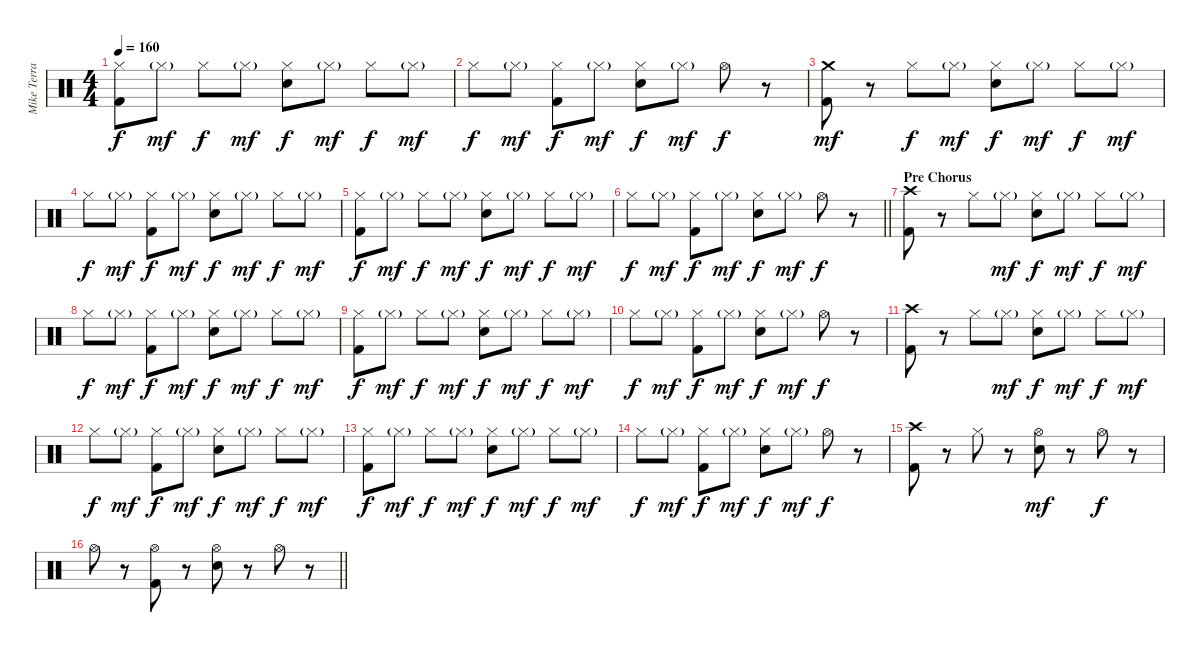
\track ("Mike Terrana" "Mike Terra") {instrument percussion}
\staff {score}
\articulation defaults
\ts (4 4)
\tempo 160
\clef neutral
\ks c
("Hi-Hat (closed)" "Kick (hit) 2").8{dy f} "Hi-Hat (closed)"{g}.8{dy mf} "Hi-Hat (closed)".8{dy f} "Hi-Hat (closed)"{g}.8{dy mf} ("Hi-Hat (closed)" "Snare (hit) 2").8{dy f} "Hi-Hat (closed)"{g}.8{dy mf} "Hi-Hat (closed)".8{dy f} "Hi-Hat (closed)"{g}.8{dy mf} |
"Hi-Hat (closed)".8{dy f} "Hi-Hat (closed)"{g}.8{dy mf} ("Hi-Hat (closed)" "Kick (hit) 2").8{dy f} "Hi-Hat (closed)"{g}.8{dy mf} ("Hi-Hat (closed)" "Snare (hit) 2").8{dy f} "Hi-Hat (closed)"{g}.8{dy mf} "Hi-Hat (open)".8{dy f} r.8 |
("Crash medium (hit)" "Kick (hit) 2").8{dy mf} r.8 "Hi-Hat (closed)".8{dy f} "Hi-Hat (closed)"{g}.8{dy mf} ("Hi-Hat (closed)" "Snare (hit) 2").8{dy f} "Hi-Hat (closed)"{g}.8{dy mf} "Hi-Hat (closed)".8{dy f} "Hi-Hat (closed)"{g}.8{dy mf} |
"Hi-Hat (closed)".8{dy f} "Hi-Hat (closed)"{g}.8{dy mf} ("Hi-Hat (closed)" "Kick (hit) 2").8{dy f} "Hi-Hat (closed)"{g}.8{dy mf} ("Hi-Hat (closed)" "Snare (hit) 2").8{dy f} "Hi-Hat (closed)"{g}.8{dy mf} "Hi-Hat (closed)".8{dy f} "Hi-Hat (closed)"{g}.8{dy mf} |
("Hi-Hat (closed)" "Kick (hit) 2").8{dy f} "Hi-Hat (closed)"{g}.8{dy mf} "Hi-Hat (closed)".8{dy f} "Hi-Hat (closed)"{g}.8{dy mf} ("Hi-Hat (closed)" "Snare (hit) 2").8{dy f} "Hi-Hat (closed)"{g}.8{dy mf} "Hi-Hat (closed)".8{dy f} "Hi-Hat (closed)"{g}.8{dy mf} |
\barLineRight lightlight "Hi-Hat (closed)".8{dy f} "Hi-Hat (closed)"{g}.8{dy mf}
("Hi-Hat (closed)" "Kick (hit) 2").8{dy f} "Hi-Hat (closed)"{g}.8{dy mf} ("Hi-Hat (closed)" "Snare (hit) 2").8{dy f} "Hi-Hat (closed)"{g}.8{dy mf} "Hi-Hat (open)".8{dy f} r.8 |
\section ("" "Pre Chorus")
("Crash high (hit)" "Kick (hit) 2").8 r.8 "Hi-Hat (closed)".8 "Hi-Hat (closed)"{g}.8{dy mf} ("Hi-Hat (closed)" "Snare (hit) 2").8{dy f} "Hi-Hat (closed)"{g}.8{dy mf} "Hi-Hat (closed)".8{dy f} "Hi-Hat (closed)"{g}.8{dy mf} |
"Hi-Hat (closed)".8{dy f} "Hi-Hat (closed)"{g}.8{dy mf} ("Hi-Hat (closed)" "Kick (hit) 2").8{dy f} "Hi-Hat (closed)"{g}.8{dy mf} ("Hi-Hat (closed)" "Snare (hit) 2").8{dy f} "Hi-Hat (closed)"{g}.8{dy mf} "Hi-Hat (closed)".8{dy f} "Hi-Hat (closed)"{g}.8{dy mf} |
("Hi-Hat (closed)" "Kick (hit) 2").8{dy f} "Hi-Hat (closed)"{g}.8{dy mf} "Hi-Hat (closed)".8{dy f} "Hi-Hat (closed)"{g}.8{dy mf} ("Hi-Hat (closed)" "Snare (hit) 2").8{dy f} "Hi-Hat (closed)"{g}.8{dy mf} "Hi-Hat (closed)".8{dy f} "Hi-Hat (closed)"{g}.8{dy mf} |
"Hi-Hat (closed)".8{dy f} "Hi-Hat (closed)"{g}.8{dy mf} ("Hi-Hat (closed)" "Kick (hit) 2").8{dy f} "Hi-Hat (closed)"{g}.8{dy mf} ("Hi-Hat (closed)" "Snare (hit) 2").8{dy f} "Hi-Hat (closed)"{g}.8{dy mf} "Hi-Hat (open)".8{dy f} r.8 |
("Crash high (hit)" "Kick (hit) 2").8 r.8 "Hi-Hat (closed)".8 "Hi-Hat (closed)"{g}.8{dy mf} ("Hi-Hat (closed)" "Snare (hit) 2").8{dy f} "Hi-Hat (closed)"{g}.8{dy mf} "Hi-Hat (closed)".8{dy f} "Hi-Hat (closed)"{g}.8{dy mf} |
"Hi-Hat (closed)".8{dy f} "Hi-Hat (closed)"{g}.8{dy mf} ("Hi-Hat (closed)" "Kick (hit) 2").8{dy f} "Hi-Hat (closed)"{g}.8{dy mf} ("Hi-Hat (closed)" "Snare (hit) 2").8{dy f} "Hi-Hat (closed)"{g}.8{dy mf} "Hi-Hat (closed)".8{dy f} "Hi-Hat (closed)"{g}.8{dy mf} |
("Hi-Hat (closed)" "Kick (hit) 2").8{dy f} "Hi-Hat (closed)"{g}.8{dy mf} "Hi-Hat (closed)".8{dy f} "Hi-Hat (closed)"{g}.8{dy mf} ("Hi-Hat (closed)" "Snare (hit) 2").8{dy f} "Hi-Hat (closed)"{g}.8{dy mf} "Hi-Hat (closed)".8{dy f} "Hi-Hat (closed)"{g}.8{dy mf} |
"Hi-Hat (closed)".8{dy f} "Hi-Hat (closed)"{g}.8{dy mf} ("Hi-Hat (closed)" "Kick (hit) 2").8{dy f} "Hi-Hat (closed)"{g}.8{dy mf} ("Hi-Hat (closed)" "Snare (hit) 2").8{dy f} "Hi-Hat (closed)"{g}.8{dy mf} "Hi-Hat (open)".8{dy f} r.8 |
("Crash high (hit)" "Kick (hit) 2").8 r.8 "Hi-Hat (closed)".8 r.8 ("Hi-Hat (open)" "Snare (hit) 2").8{dy mf} r.8 "Hi-Hat (open)".8{dy f} r.8 |
\barLineRight lightlight "Hi-Hat (open)".8
r.8 ("Hi-Hat (open)" "Kick (hit) 2").8 r.8 ("Hi-Hat (open)" "Snare (hit) 2").8 r.8 "Hi-Hat (open)".8 r.8
